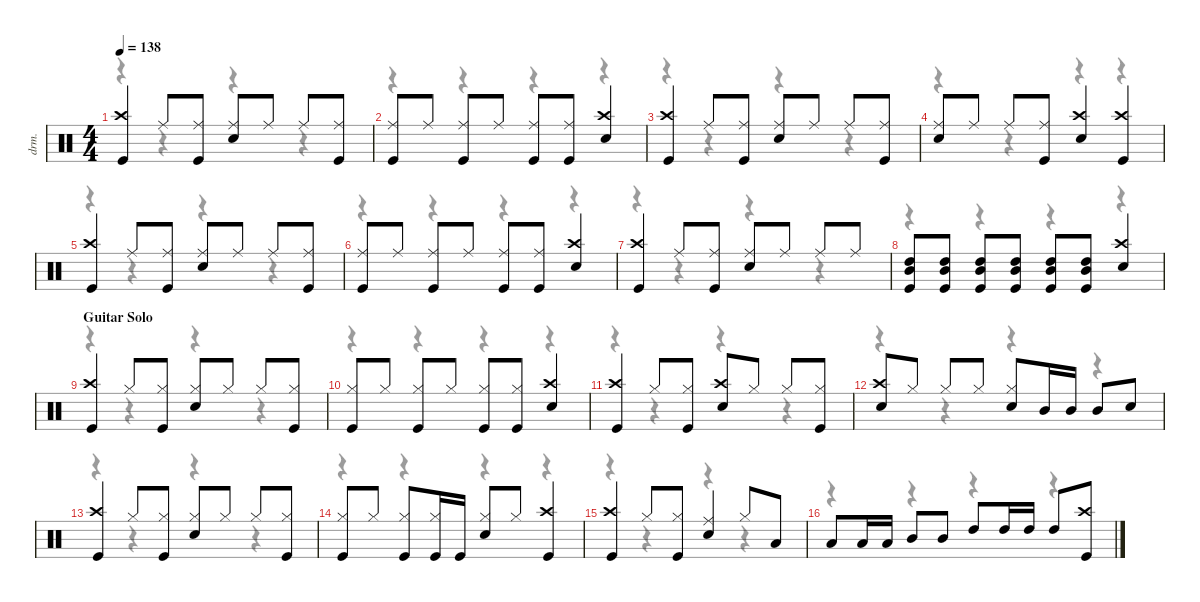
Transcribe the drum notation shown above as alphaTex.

\defaultSystemsLayout 4
\hideDynamics
\bracketExtendMode nobrackets
\track ("Drumkit" "drm.") {instrument percussion}
\staff {score}
\articulation defaults
\voice
\ts (4 4)
\tempo 138
\clef neutral
\ks c
("Kick (hit)" "Crash high (hit)").4{dy f} "Ride (middle)".8 ("Ride (middle)" "Kick (hit)").8 ("Snare (hit) 2" "Ride (middle)").8 "Ride (middle)".8 "Ride (middle)".8 ("Ride (middle)" "Kick (hit)").8 |
("Ride (middle)" "Kick (hit)").8 "Ride (middle)".8 ("Ride (middle)" "Kick (hit)").8 "Ride (middle)".8 ("Ride (middle)" "Kick (hit)").8 ("Ride (middle)" "Kick (hit)").8 ("Crash high (hit)" "Snare (hit) 2").4 |
("Kick (hit)" "Crash high (hit)").4 "Ride (middle)".8 ("Ride (middle)" "Kick (hit)").8 ("Snare (hit) 2" "Ride (middle)").8 "Ride (middle)".8 "Ride (middle)".8 ("Ride (middle)" "Kick (hit)").8 |
("Ride (middle)" "Snare (hit) 2").8 "Ride (middle)".8 "Ride (middle)".8 ("Ride (middle)" "Kick (hit)").8 ("Crash high (hit)" "Snare (hit) 2").4 ("Crash high (hit)" "Kick (hit)").4 |
("Kick (hit)" "Crash high (hit)").4 "Ride (middle)".8 ("Ride (middle)" "Kick (hit)").8 ("Snare (hit) 2" "Ride (middle)").8 "Ride (middle)".8 "Ride (middle)".8 ("Ride (middle)" "Kick (hit)").8 |
("Ride (middle)" "Kick (hit)").8 "Ride (middle)".8 ("Ride (middle)" "Kick (hit)").8 "Ride (middle)".8 ("Ride (middle)" "Kick (hit)").8 ("Ride (middle)" "Kick (hit)").8 ("Crash high (hit)" "Snare (hit) 2").4 |
("Kick (hit)" "Crash high (hit)").4 "Ride (middle)".8 ("Ride (middle)" "Kick (hit)").8 ("Snare (hit) 2" "Ride (middle)").8 "Ride (middle)".8 "Ride (middle)".8 "Ride (middle)".8 |
("High Tom (hit)" "Mid Tom (hit)" "Kick (hit)").8 ("Mid Tom (hit)" "High Tom (hit)" "Kick (hit)").8 ("Mid Tom (hit)" "High Tom (hit)" "Kick (hit)").8 ("Mid Tom (hit)" "High Tom (hit)" "Kick (hit)").8 ("Mid Tom (hit)" "High Tom (hit)" "Kick (hit)").8 ("Mid Tom (hit)" "High Tom (hit)" "Kick (hit)").8 ("Crash high (hit)" "Snare (hit) 2").4 |
\section ("" "Guitar Solo")
("Kick (hit)" "Crash high (hit)").4 "Hi-Hat (closed)".8 ("Hi-Hat (closed)" "Kick (hit)").8 ("Snare (hit) 2" "Hi-Hat (closed)").8 "Hi-Hat (closed)".8 "Hi-Hat (closed)".8 ("Kick (hit)" "Hi-Hat (closed)").8 |
("Kick (hit)" "Hi-Hat (closed)").8 "Hi-Hat (closed)".8 ("Kick (hit)" "Hi-Hat (closed)").8 "Hi-Hat (closed)".8 ("Kick (hit)" "Hi-Hat (closed)").8 ("Kick (hit)" "Hi-Hat (closed)").8 ("Crash high (hit)" "Snare (hit) 2").4 |
("Kick (hit)" "Crash high (hit)").4 "Hi-Hat (closed)".8 ("Hi-Hat (closed)" "Kick (hit)").8 ("Crash high (hit)" "Snare (hit) 2").8 "Hi-Hat (closed)".8 "Hi-Hat (closed)".8 ("Hi-Hat (closed)" "Kick (hit)").8 |
("Crash high (hit)" "Snare (hit) 2").8 "Hi-Hat (closed)".8 "Hi-Hat (closed)".8 "Hi-Hat (closed)".8 ("Snare (hit) 2" "Hi-Hat (closed)").8 "Mid Tom (hit)".16 "Mid Tom (hit)".16 "Mid Tom (hit)".8 "Snare (hit) 2".8 |
("Kick (hit)" "Crash high (hit)").4 "Hi-Hat (closed)".8 ("Kick (hit)" "Hi-Hat (closed)").8 ("Snare (hit) 2" "Hi-Hat (closed)").8 "Hi-Hat (closed)".8 "Hi-Hat (closed)".8 ("Kick (hit)" "Hi-Hat (closed)").8 |
("Kick (hit)" "Hi-Hat (closed)").8 "Hi-Hat (closed)".8 ("Kick (hit)" "Hi-Hat (closed)").8 ("Kick (hit)" "Hi-Hat (closed)").16 "Kick (hit)".16 ("Snare (hit) 2" "Hi-Hat (closed)").8 "Hi-Hat (closed)".8 ("Crash high (hit)" "Kick (hit)").4 |
("Crash high (hit)" "Kick (hit)").4 "Hi-Hat (closed)".8 ("Hi-Hat (closed)" "Kick (hit)").8 ("Snare (hit) 2" "Ride (middle)").4 "Hi-Hat (closed)".8 "Low Tom (hit)".8 |
"Low Tom (hit)".8 "Low Tom (hit)".16 "Low Tom (hit)".16 "Mid Tom (hit)".8 "Mid Tom (hit)".8 "High Tom (hit)".8 "High Tom (hit)".16 "High Tom (hit)".16 "High Tom (hit)".8 ("Crash high (hit)" "Kick (hit)").8
\voice
\clef neutral
\ottava regular
\simile none
\ks c
r.4{dy mf} r.4 r.4 r.4 |
r.4 r.4 r.4 r.4 |
r.4 r.4 r.4 r.4 |
r.4 r.4 r.4 r.4 |
r.4 r.4 r.4 r.4 |
r.4 r.4 r.4 r.4 |
r.4 r.4 r.4 r.4 |
r.4 r.4 r.4 r.4 |
r.4 r.4 r.4 r.4 |
r.4 r.4 r.4 r.4 |
r.4 r.4 r.4 r.4 |
r.4 r.4 r.4 r.4 |
r.4 r.4 r.4 r.4 |
r.4 r.4 r.4 r.4 |
r.4 r.4 r.4 r.4 |
r.4 r.4 r.4 r.4
